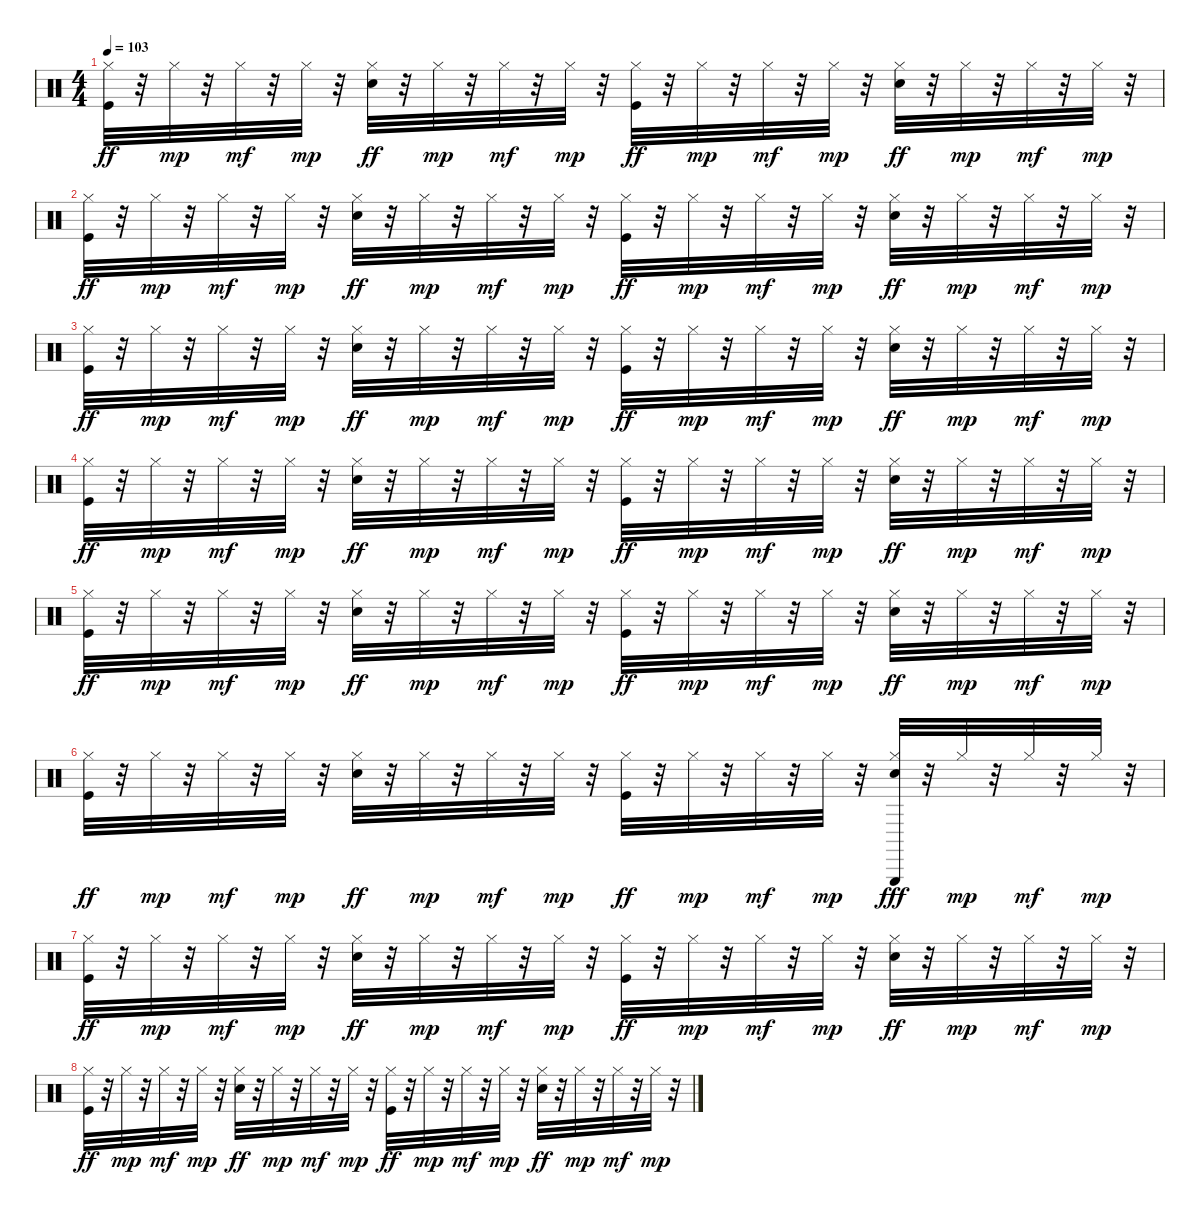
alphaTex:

\track "" {instrument percussion}
\staff {score}
\articulation defaults
\ts (4 4)
\tempo 103
\clef neutral
\ks c
("Kick (hit)" "Hi-Hat (closed)").32{dy ff} r.32 "Hi-Hat (closed)".32{dy mp} r.32 "Hi-Hat (closed)".32{dy mf} r.32 "Hi-Hat (closed)".32{dy mp} r.32 ("Snare (hit) 2" "Hi-Hat (closed)").32{dy ff} r.32 "Hi-Hat (closed)".32{dy mp} r.32 "Hi-Hat (closed)".32{dy mf} r.32 "Hi-Hat (closed)".32{dy mp} r.32 ("Kick (hit)" "Hi-Hat (closed)").32{dy ff} r.32 "Hi-Hat (closed)".32{dy mp} r.32 "Hi-Hat (closed)".32{dy mf} r.32 "Hi-Hat (closed)".32{dy mp} r.32 ("Snare (hit) 2" "Hi-Hat (closed)").32{dy ff} r.32 "Hi-Hat (closed)".32{dy mp} r.32 "Hi-Hat (closed)".32{dy mf} r.32 "Hi-Hat (closed)".32{dy mp} r.32 |
("Kick (hit)" "Hi-Hat (closed)").32{dy ff} r.32 "Hi-Hat (closed)".32{dy mp} r.32 "Hi-Hat (closed)".32{dy mf} r.32 "Hi-Hat (closed)".32{dy mp} r.32 ("Snare (hit) 2" "Hi-Hat (closed)").32{dy ff} r.32 "Hi-Hat (closed)".32{dy mp} r.32 "Hi-Hat (closed)".32{dy mf} r.32 "Hi-Hat (closed)".32{dy mp} r.32 ("Kick (hit)" "Hi-Hat (closed)").32{dy ff} r.32 "Hi-Hat (closed)".32{dy mp} r.32 "Hi-Hat (closed)".32{dy mf} r.32 "Hi-Hat (closed)".32{dy mp} r.32 ("Snare (hit) 2" "Hi-Hat (closed)").32{dy ff} r.32 "Hi-Hat (closed)".32{dy mp} r.32 "Hi-Hat (closed)".32{dy mf} r.32 "Hi-Hat (closed)".32{dy mp} r.32 |
("Kick (hit)" "Hi-Hat (closed)").32{dy ff} r.32 "Hi-Hat (closed)".32{dy mp} r.32 "Hi-Hat (closed)".32{dy mf} r.32 "Hi-Hat (closed)".32{dy mp} r.32 ("Snare (hit) 2" "Hi-Hat (closed)").32{dy ff} r.32 "Hi-Hat (closed)".32{dy mp} r.32 "Hi-Hat (closed)".32{dy mf} r.32 "Hi-Hat (closed)".32{dy mp} r.32 ("Kick (hit)" "Hi-Hat (closed)").32{dy ff} r.32 "Hi-Hat (closed)".32{dy mp} r.32 "Hi-Hat (closed)".32{dy mf} r.32 "Hi-Hat (closed)".32{dy mp} r.32 ("Snare (hit) 2" "Hi-Hat (closed)").32{dy ff} r.32 "Hi-Hat (closed)".32{dy mp} r.32 "Hi-Hat (closed)".32{dy mf} r.32 "Hi-Hat (closed)".32{dy mp} r.32 |
("Kick (hit)" "Hi-Hat (closed)").32{dy ff} r.32 "Hi-Hat (closed)".32{dy mp} r.32 "Hi-Hat (closed)".32{dy mf} r.32 "Hi-Hat (closed)".32{dy mp} r.32 ("Snare (hit) 2" "Hi-Hat (closed)").32{dy ff} r.32 "Hi-Hat (closed)".32{dy mp} r.32 "Hi-Hat (closed)".32{dy mf} r.32 "Hi-Hat (closed)".32{dy mp} r.32 ("Kick (hit)" "Hi-Hat (closed)").32{dy ff} r.32 "Hi-Hat (closed)".32{dy mp} r.32 "Hi-Hat (closed)".32{dy mf} r.32 "Hi-Hat (closed)".32{dy mp} r.32 ("Snare (hit) 2" "Hi-Hat (closed)").32{dy ff} r.32 "Hi-Hat (closed)".32{dy mp} r.32 "Hi-Hat (closed)".32{dy mf} r.32 "Hi-Hat (closed)".32{dy mp} r.32 |
("Kick (hit)" "Hi-Hat (closed)").32{dy ff} r.32 "Hi-Hat (closed)".32{dy mp} r.32 "Hi-Hat (closed)".32{dy mf} r.32 "Hi-Hat (closed)".32{dy mp} r.32 ("Snare (hit) 2" "Hi-Hat (closed)").32{dy ff} r.32 "Hi-Hat (closed)".32{dy mp} r.32 "Hi-Hat (closed)".32{dy mf} r.32 "Hi-Hat (closed)".32{dy mp} r.32 ("Kick (hit)" "Hi-Hat (closed)").32{dy ff} r.32 "Hi-Hat (closed)".32{dy mp} r.32 "Hi-Hat (closed)".32{dy mf} r.32 "Hi-Hat (closed)".32{dy mp} r.32 ("Snare (hit) 2" "Hi-Hat (closed)").32{dy ff} r.32 "Hi-Hat (closed)".32{dy mp} r.32 "Hi-Hat (closed)".32{dy mf} r.32 "Hi-Hat (closed)".32{dy mp} r.32 |
("Kick (hit)" "Hi-Hat (closed)").32{dy ff} r.32 "Hi-Hat (closed)".32{dy mp} r.32 "Hi-Hat (closed)".32{dy mf} r.32 "Hi-Hat (closed)".32{dy mp} r.32 ("Snare (hit) 2" "Hi-Hat (closed)").32{dy ff} r.32 "Hi-Hat (closed)".32{dy mp} r.32 "Hi-Hat (closed)".32{dy mf} r.32 "Hi-Hat (closed)".32{dy mp} r.32 ("Kick (hit)" "Hi-Hat (closed)").32{dy ff} r.32 "Hi-Hat (closed)".32{dy mp} r.32 "Hi-Hat (closed)".32{dy mf} r.32 "Hi-Hat (closed)".32{dy mp} r.32 ("Snare (hit) 2" "Hi-Hat (closed)" "Triangle (hit)").32{dy fff} r.32 "Hi-Hat (closed)".32{dy mp} r.32 "Hi-Hat (closed)".32{dy mf} r.32 "Hi-Hat (closed)".32{dy mp} r.32 |
("Kick (hit)" "Hi-Hat (closed)").32{dy ff} r.32 "Hi-Hat (closed)".32{dy mp} r.32 "Hi-Hat (closed)".32{dy mf} r.32 "Hi-Hat (closed)".32{dy mp} r.32 ("Snare (hit) 2" "Hi-Hat (closed)").32{dy ff} r.32 "Hi-Hat (closed)".32{dy mp} r.32 "Hi-Hat (closed)".32{dy mf} r.32 "Hi-Hat (closed)".32{dy mp} r.32 ("Kick (hit)" "Hi-Hat (closed)").32{dy ff} r.32 "Hi-Hat (closed)".32{dy mp} r.32 "Hi-Hat (closed)".32{dy mf} r.32 "Hi-Hat (closed)".32{dy mp} r.32 ("Snare (hit) 2" "Hi-Hat (closed)").32{dy ff} r.32 "Hi-Hat (closed)".32{dy mp} r.32 "Hi-Hat (closed)".32{dy mf} r.32 "Hi-Hat (closed)".32{dy mp} r.32 |
("Kick (hit)" "Hi-Hat (closed)").32{dy ff} r.32 "Hi-Hat (closed)".32{dy mp} r.32 "Hi-Hat (closed)".32{dy mf} r.32 "Hi-Hat (closed)".32{dy mp} r.32 ("Snare (hit) 2" "Hi-Hat (closed)").32{dy ff} r.32 "Hi-Hat (closed)".32{dy mp} r.32 "Hi-Hat (closed)".32{dy mf} r.32 "Hi-Hat (closed)".32{dy mp} r.32 ("Kick (hit)" "Hi-Hat (closed)").32{dy ff} r.32 "Hi-Hat (closed)".32{dy mp} r.32 "Hi-Hat (closed)".32{dy mf} r.32 "Hi-Hat (closed)".32{dy mp} r.32 ("Snare (hit) 2" "Hi-Hat (closed)").32{dy ff} r.32 "Hi-Hat (closed)".32{dy mp} r.32 "Hi-Hat (closed)".32{dy mf} r.32 "Hi-Hat (closed)".32{dy mp} r.32
